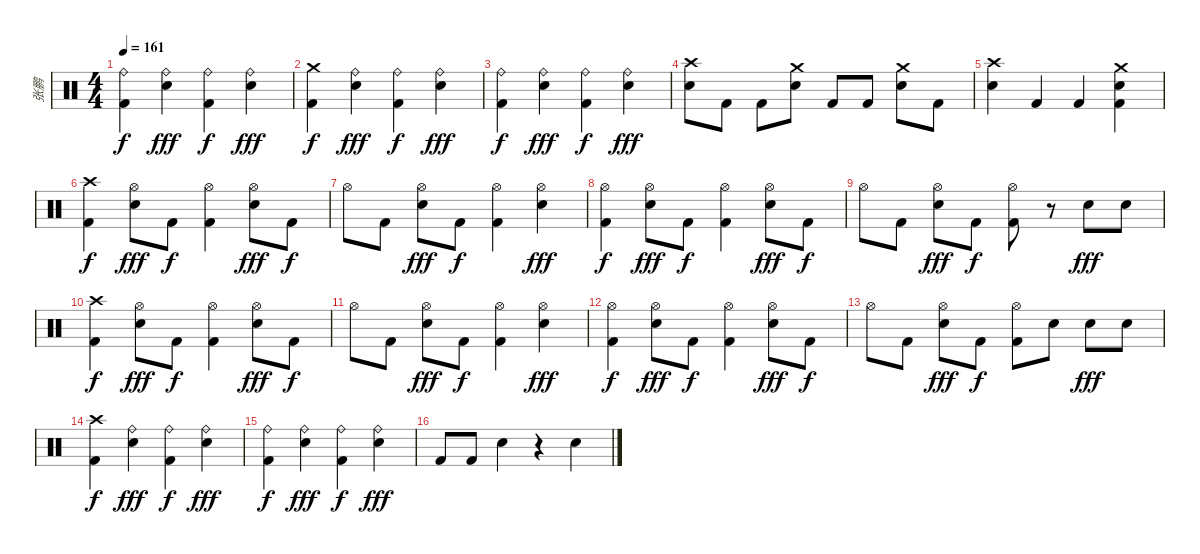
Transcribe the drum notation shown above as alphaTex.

\track ("张鹏" "张鹏") {instrument percussion}
\staff {score}
\articulation defaults
\ts (4 4)
\tempo 161
\clef neutral
\ks c
("Ride (bell)" "Kick (hit) 2").4{dy f} ("Ride (bell)" "Electric Snare (hit)").4{dy fff} ("Ride (bell)" "Kick (hit) 2").4{dy f} ("Ride (bell)" "Electric Snare (hit)").4{dy fff} |
("Crash medium (hit)" "Kick (hit) 2").4{dy f} ("Ride (bell)" "Electric Snare (hit)").4{dy fff} ("Ride (bell)" "Kick (hit) 2").4{dy f} ("Ride (bell)" "Electric Snare (hit)").4{dy fff} |
("Ride (bell)" "Kick (hit) 2").4{dy f} ("Ride (bell)" "Electric Snare (hit)").4{dy fff} ("Ride (bell)" "Kick (hit) 2").4{dy f} ("Ride (bell)" "Electric Snare (hit)").4{dy fff} |
("Crash high (hit)" "Electric Snare (hit)").8 "Kick (hit) 2".8 "Kick (hit) 2".8 ("Crash medium (hit)" "Electric Snare (hit)").8 "Kick (hit) 2".8 "Kick (hit) 2".8 ("Crash medium (hit)" "Electric Snare (hit)").8 "Kick (hit) 2".8 |
("Crash high (hit)" "Electric Snare (hit)").4 "Kick (hit) 2".4 "Kick (hit) 2".4 ("Crash medium (hit)" "Electric Snare (hit)" "Kick (hit) 2").4 |
("Crash high (hit)" "Kick (hit) 2").4{dy f} ("Hi-Hat (open)" "Electric Snare (hit)").8{dy fff} "Kick (hit) 2".8{dy f} ("Hi-Hat (open)" "Kick (hit) 2").4 ("Hi-Hat (open)" "Electric Snare (hit)").8{dy fff} "Kick (hit) 2".8{dy f} |
"Hi-Hat (open)".8 "Kick (hit) 2".8 ("Hi-Hat (open)" "Electric Snare (hit)").8{dy fff} "Kick (hit) 2".8{dy f} ("Hi-Hat (open)" "Kick (hit) 2").4 ("Hi-Hat (open)" "Electric Snare (hit)").4{dy fff} |
("Hi-Hat (open)" "Kick (hit) 2").4{dy f} ("Hi-Hat (open)" "Electric Snare (hit)").8{dy fff} "Kick (hit) 2".8{dy f} ("Hi-Hat (open)" "Kick (hit) 2").4 ("Hi-Hat (open)" "Electric Snare (hit)").8{dy fff} "Kick (hit) 2".8{dy f} |
"Hi-Hat (open)".8 "Kick (hit) 2".8 ("Hi-Hat (open)" "Electric Snare (hit)").8{dy fff} "Kick (hit) 2".8{dy f} ("Hi-Hat (open)" "Kick (hit) 2").8 r.8 "Electric Snare (hit)".8{dy fff} "Electric Snare (hit)".8 |
("Crash high (hit)" "Kick (hit) 2").4{dy f} ("Hi-Hat (open)" "Electric Snare (hit)").8{dy fff} "Kick (hit) 2".8{dy f} ("Hi-Hat (open)" "Kick (hit) 2").4 ("Hi-Hat (open)" "Electric Snare (hit)").8{dy fff} "Kick (hit) 2".8{dy f} |
"Hi-Hat (open)".8 "Kick (hit) 2".8 ("Hi-Hat (open)" "Electric Snare (hit)").8{dy fff} "Kick (hit) 2".8{dy f} ("Hi-Hat (open)" "Kick (hit) 2").4 ("Hi-Hat (open)" "Electric Snare (hit)").4{dy fff} |
("Hi-Hat (open)" "Kick (hit) 2").4{dy f} ("Hi-Hat (open)" "Electric Snare (hit)").8{dy fff} "Kick (hit) 2".8{dy f} ("Hi-Hat (open)" "Kick (hit) 2").4 ("Hi-Hat (open)" "Electric Snare (hit)").8{dy fff} "Kick (hit) 2".8{dy f} |
"Hi-Hat (open)".8 "Kick (hit) 2".8 ("Hi-Hat (open)" "Electric Snare (hit)").8{dy fff} "Kick (hit) 2".8{dy f} ("Hi-Hat (open)" "Kick (hit) 2").8 "Electric Snare (hit)".8 "Electric Snare (hit)".8{dy fff} "Electric Snare (hit)".8 |
("Crash high (hit)" "Kick (hit) 2").4{dy f} ("Ride (bell)" "Electric Snare (hit)").4{dy fff} ("Ride (bell)" "Kick (hit) 2").4{dy f} ("Ride (bell)" "Electric Snare (hit)").4{dy fff} |
("Ride (bell)" "Kick (hit) 2").4{dy f} ("Ride (bell)" "Electric Snare (hit)").4{dy fff} ("Ride (bell)" "Kick (hit) 2").4{dy f} ("Ride (bell)" "Electric Snare (hit)").4{dy fff} |
"Kick (hit) 2".8 "Kick (hit) 2".8 "Electric Snare (hit)".4 r.4 "Electric Snare (hit)".4
